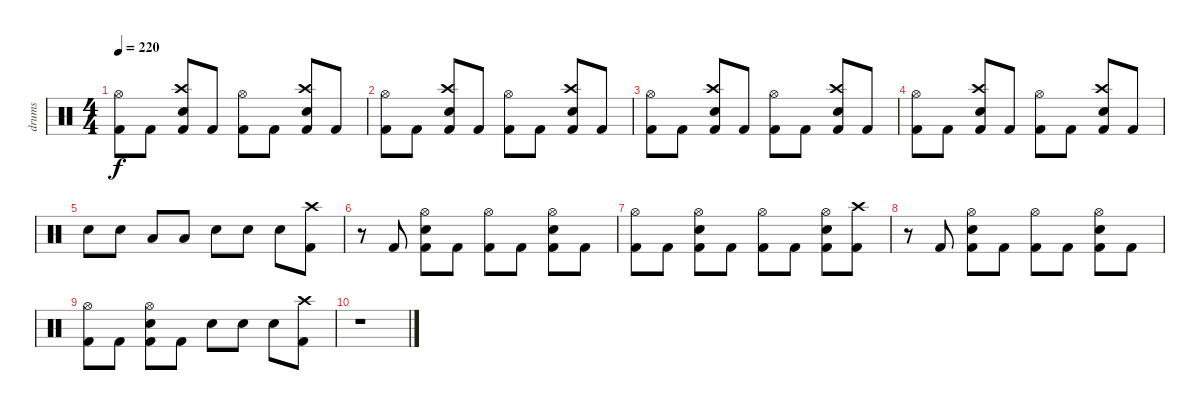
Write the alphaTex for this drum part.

\track ("drums" "drums") {instrument percussion}
\staff {score}
\articulation defaults
\ts (4 4)
\tempo 220
\clef neutral
\ks c
("Hi-Hat (open)" "Kick (hit) 2").8{dy f} "Kick (hit) 2".8 ("Crash high (hit)" "Electric Snare (hit)" "Kick (hit) 2").8 "Kick (hit) 2".8 ("Hi-Hat (open)" "Kick (hit) 2").8 "Kick (hit) 2".8 ("Crash high (hit)" "Electric Snare (hit)" "Kick (hit) 2").8 "Kick (hit) 2".8 |
("Hi-Hat (open)" "Kick (hit) 2").8 "Kick (hit) 2".8 ("Crash high (hit)" "Electric Snare (hit)" "Kick (hit) 2").8 "Kick (hit) 2".8 ("Hi-Hat (open)" "Kick (hit) 2").8 "Kick (hit) 2".8 ("Crash high (hit)" "Electric Snare (hit)" "Kick (hit) 2").8 "Kick (hit) 2".8 |
("Hi-Hat (open)" "Kick (hit) 2").8 "Kick (hit) 2".8 ("Crash high (hit)" "Electric Snare (hit)" "Kick (hit) 2").8 "Kick (hit) 2".8 ("Hi-Hat (open)" "Kick (hit) 2").8 "Kick (hit) 2".8 ("Crash high (hit)" "Electric Snare (hit)" "Kick (hit) 2").8 "Kick (hit) 2".8 |
("Hi-Hat (open)" "Kick (hit) 2").8 "Kick (hit) 2".8 ("Crash high (hit)" "Electric Snare (hit)" "Kick (hit) 2").8 "Kick (hit) 2".8 ("Hi-Hat (open)" "Kick (hit) 2").8 "Kick (hit) 2".8 ("Crash high (hit)" "Electric Snare (hit)" "Kick (hit) 2").8 "Kick (hit) 2".8 |
"Electric Snare (hit)".8 "Electric Snare (hit)".8 "Low Tom (hit)".8 "Low Tom (hit)".8 "Electric Snare (hit)".8 "Electric Snare (hit)".8 "Electric Snare (hit)".8 ("Crash high (hit)" "Kick (hit) 2").8 |
r.8 "Kick (hit) 2".8 ("Hi-Hat (open)" "Electric Snare (hit)" "Kick (hit) 2").8 "Kick (hit) 2".8 ("Hi-Hat (open)" "Kick (hit) 2").8 "Kick (hit) 2".8 ("Hi-Hat (open)" "Electric Snare (hit)" "Kick (hit) 2").8 "Kick (hit) 2".8 |
("Hi-Hat (open)" "Kick (hit) 2").8 "Kick (hit) 2".8 ("Hi-Hat (open)" "Electric Snare (hit)" "Kick (hit) 2").8 "Kick (hit) 2".8 ("Hi-Hat (open)" "Kick (hit) 2").8 "Kick (hit) 2".8 ("Hi-Hat (open)" "Electric Snare (hit)" "Kick (hit) 2").8 ("Crash high (hit)" "Kick (hit) 2").8 |
r.8 "Kick (hit) 2".8 ("Hi-Hat (open)" "Electric Snare (hit)" "Kick (hit) 2").8 "Kick (hit) 2".8 ("Hi-Hat (open)" "Kick (hit) 2").8 "Kick (hit) 2".8 ("Hi-Hat (open)" "Electric Snare (hit)" "Kick (hit) 2").8 "Kick (hit) 2".8 |
("Hi-Hat (open)" "Kick (hit) 2").8 "Kick (hit) 2".8 ("Hi-Hat (open)" "Electric Snare (hit)" "Kick (hit) 2").8 "Kick (hit) 2".8 "Electric Snare (hit)".8 "Electric Snare (hit)".8 "Electric Snare (hit)".8 ("Crash high (hit)" "Kick (hit) 2").8 |
r.1
